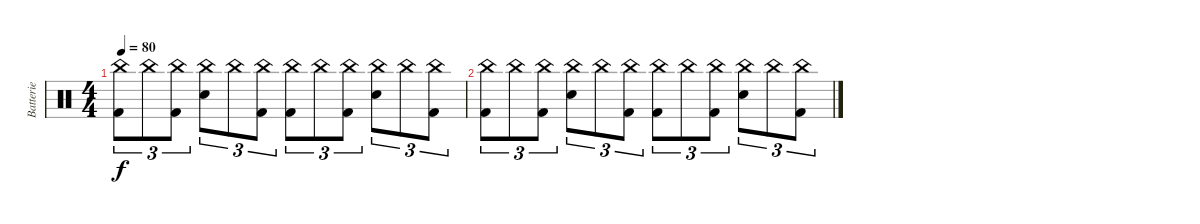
\track ("Batterie" "Batterie") {instrument percussion}
\staff {score}
\articulation defaults
\ts (4 4)
\tempo 80
\clef neutral
\ks c
("China (hit)" "Kick (hit) 2").8{tu (3 2) dy f} "China (hit)".8{tu (3 2)} ("China (hit)" "Kick (hit) 2").8{tu (3 2)} ("China (hit)" "Electric Snare (hit)").8{tu (3 2)} "China (hit)".8{tu (3 2)} ("China (hit)" "Kick (hit) 2").8{tu (3 2)} ("China (hit)" "Kick (hit) 2").8{tu (3 2)} "China (hit)".8{tu (3 2)} ("China (hit)" "Kick (hit) 2").8{tu (3 2)} ("China (hit)" "Electric Snare (hit)").8{tu (3 2)} "China (hit)".8{tu (3 2)} ("China (hit)" "Kick (hit) 2").8{tu (3 2)} |
("China (hit)" "Kick (hit) 2").8{tu (3 2)} "China (hit)".8{tu (3 2)} ("China (hit)" "Kick (hit) 2").8{tu (3 2)} ("China (hit)" "Electric Snare (hit)").8{tu (3 2)} "China (hit)".8{tu (3 2)} ("China (hit)" "Kick (hit) 2").8{tu (3 2)} ("China (hit)" "Kick (hit) 2").8{tu (3 2)} "China (hit)".8{tu (3 2)} ("China (hit)" "Kick (hit) 2").8{tu (3 2)} ("China (hit)" "Electric Snare (hit)").8{tu (3 2)} "China (hit)".8{tu (3 2)} ("China (hit)" "Kick (hit) 2").8{tu (3 2)}
